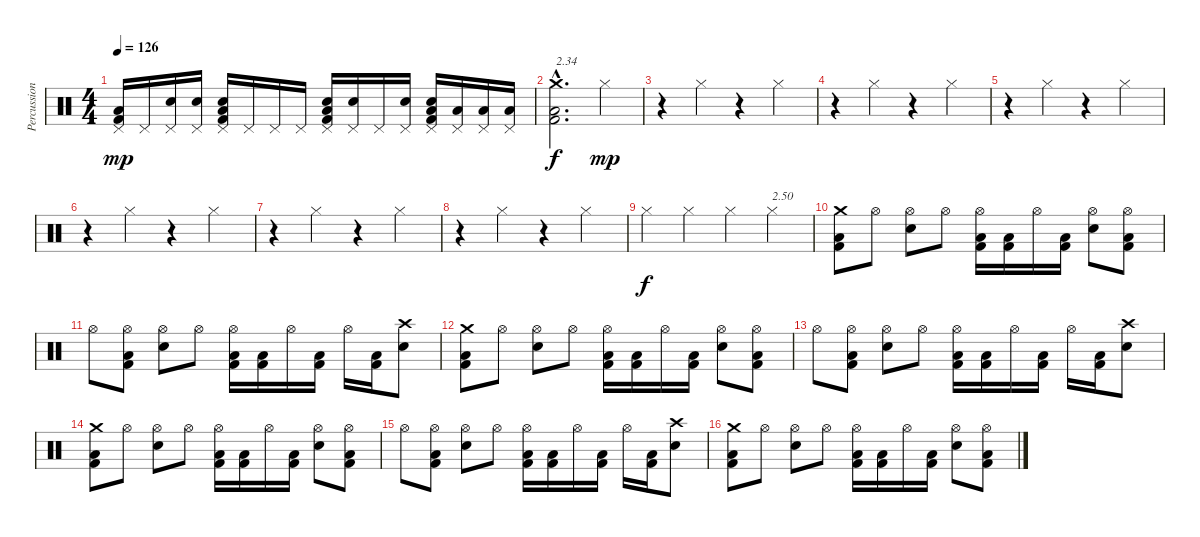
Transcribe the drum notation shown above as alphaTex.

\track ("Percussions" "Percussion") {instrument percussion}
\staff {score}
\articulation defaults
\ts (4 4)
\tempo 126
\clef neutral
\ks c
("Kick (hit) 2" "Low Floor Tom (hit)" "Pedal Hi-Hat (hit)").16{dy mp} "Pedal Hi-Hat (hit)".16 ("Snare (hit) 2" "Pedal Hi-Hat (hit)").16 ("Snare (hit) 2" "Pedal Hi-Hat (hit)").16 ("Kick (hit) 2" "Low Floor Tom (hit)" "Snare (hit) 2" "Pedal Hi-Hat (hit)").16 "Pedal Hi-Hat (hit)".16 "Pedal Hi-Hat (hit)".16 "Pedal Hi-Hat (hit)".16 ("Kick (hit) 2" "Low Floor Tom (hit)" "Snare (hit) 2" "Pedal Hi-Hat (hit)").16 ("Snare (hit) 2" "Pedal Hi-Hat (hit)").16 "Pedal Hi-Hat (hit)".16 ("Snare (hit) 2" "Pedal Hi-Hat (hit)").16 ("Kick (hit) 2" "Low Floor Tom (hit)" "Snare (hit) 2" "Pedal Hi-Hat (hit)").16 ("Low Tom (hit)" "Pedal Hi-Hat (hit)").16 ("Low Tom (hit)" "Pedal Hi-Hat (hit)").16 ("Low Tom (hit)" "Pedal Hi-Hat (hit)").16 |
("Kick (hit) 2"{hac} "Low Floor Tom (hit)"{hac} "Crash medium (hit)"{hac}).2{d txt "2.34" dy f} "Hi-Hat (closed)".4{dy mp} |
r.4 "Hi-Hat (closed)".4 r.4 "Hi-Hat (closed)".4 |
r.4 "Hi-Hat (closed)".4 r.4 "Hi-Hat (closed)".4 |
r.4 "Hi-Hat (closed)".4 r.4 "Hi-Hat (closed)".4 |
r.4 "Hi-Hat (closed)".4 r.4 "Hi-Hat (closed)".4 |
r.4 "Hi-Hat (closed)".4 r.4 "Hi-Hat (closed)".4 |
r.4 "Hi-Hat (closed)".4 r.4 "Hi-Hat (closed)".4 |
"Hi-Hat (closed)".4{dy f} "Hi-Hat (closed)".4 "Hi-Hat (closed)".4 "Hi-Hat (closed)".4{txt "2.50"} |
("Kick (hit) 2" "Low Floor Tom (hit)" "Crash medium (hit)").8 "Hi-Hat (open)".8 ("Snare (hit) 2" "Hi-Hat (open)").8 "Hi-Hat (open)".8 ("Kick (hit) 2" "Low Floor Tom (hit)" "Hi-Hat (open)").16 ("Kick (hit) 2" "Low Floor Tom (hit)").16 "Hi-Hat (open)".16 ("Kick (hit) 2" "Low Floor Tom (hit)").16 ("Snare (hit) 2" "Hi-Hat (open)").8 ("Kick (hit) 2" "Low Floor Tom (hit)" "Hi-Hat (open)").8 |
"Hi-Hat (open)".8 ("Kick (hit) 2" "Low Floor Tom (hit)" "Hi-Hat (open)").8 ("Snare (hit) 2" "Hi-Hat (open)").8 "Hi-Hat (open)".8 ("Kick (hit) 2" "Low Floor Tom (hit)" "Hi-Hat (open)").16 ("Kick (hit) 2" "Low Floor Tom (hit)").16 "Hi-Hat (open)".16 ("Kick (hit) 2" "Low Floor Tom (hit)").16 "Hi-Hat (open)".16 ("Kick (hit) 2" "Low Floor Tom (hit)").16 ("Snare (hit) 2" "Crash high (hit)").8 |
("Kick (hit) 2" "Low Floor Tom (hit)" "Crash medium (hit)").8 "Hi-Hat (open)".8 ("Snare (hit) 2" "Hi-Hat (open)").8 "Hi-Hat (open)".8 ("Kick (hit) 2" "Low Floor Tom (hit)" "Hi-Hat (open)").16 ("Kick (hit) 2" "Low Floor Tom (hit)").16 "Hi-Hat (open)".16 ("Kick (hit) 2" "Low Floor Tom (hit)").16 ("Snare (hit) 2" "Hi-Hat (open)").8 ("Kick (hit) 2" "Low Floor Tom (hit)" "Hi-Hat (open)").8 |
"Hi-Hat (open)".8 ("Kick (hit) 2" "Low Floor Tom (hit)" "Hi-Hat (open)").8 ("Snare (hit) 2" "Hi-Hat (open)").8 "Hi-Hat (open)".8 ("Kick (hit) 2" "Low Floor Tom (hit)" "Hi-Hat (open)").16 ("Kick (hit) 2" "Low Floor Tom (hit)").16 "Hi-Hat (open)".16 ("Kick (hit) 2" "Low Floor Tom (hit)").16 "Hi-Hat (open)".16 ("Kick (hit) 2" "Low Floor Tom (hit)").16 ("Snare (hit) 2" "Crash high (hit)").8 |
("Kick (hit) 2" "Low Floor Tom (hit)" "Crash medium (hit)").8 "Hi-Hat (open)".8 ("Snare (hit) 2" "Hi-Hat (open)").8 "Hi-Hat (open)".8 ("Kick (hit) 2" "Low Floor Tom (hit)" "Hi-Hat (open)").16 ("Kick (hit) 2" "Low Floor Tom (hit)").16 "Hi-Hat (open)".16 ("Kick (hit) 2" "Low Floor Tom (hit)").16 ("Snare (hit) 2" "Hi-Hat (open)").8 ("Kick (hit) 2" "Low Floor Tom (hit)" "Hi-Hat (open)").8 |
"Hi-Hat (open)".8 ("Kick (hit) 2" "Low Floor Tom (hit)" "Hi-Hat (open)").8 ("Snare (hit) 2" "Hi-Hat (open)").8 "Hi-Hat (open)".8 ("Kick (hit) 2" "Low Floor Tom (hit)" "Hi-Hat (open)").16 ("Kick (hit) 2" "Low Floor Tom (hit)").16 "Hi-Hat (open)".16 ("Kick (hit) 2" "Low Floor Tom (hit)").16 "Hi-Hat (open)".16 ("Kick (hit) 2" "Low Floor Tom (hit)").16 ("Snare (hit) 2" "Crash high (hit)").8 |
("Kick (hit) 2" "Low Floor Tom (hit)" "Crash medium (hit)").8 "Hi-Hat (open)".8 ("Snare (hit) 2" "Hi-Hat (open)").8 "Hi-Hat (open)".8 ("Kick (hit) 2" "Low Floor Tom (hit)" "Hi-Hat (open)").16 ("Kick (hit) 2" "Low Floor Tom (hit)").16 "Hi-Hat (open)".16 ("Kick (hit) 2" "Low Floor Tom (hit)").16 ("Snare (hit) 2" "Hi-Hat (open)").8 ("Kick (hit) 2" "Low Floor Tom (hit)" "Hi-Hat (open)").8
